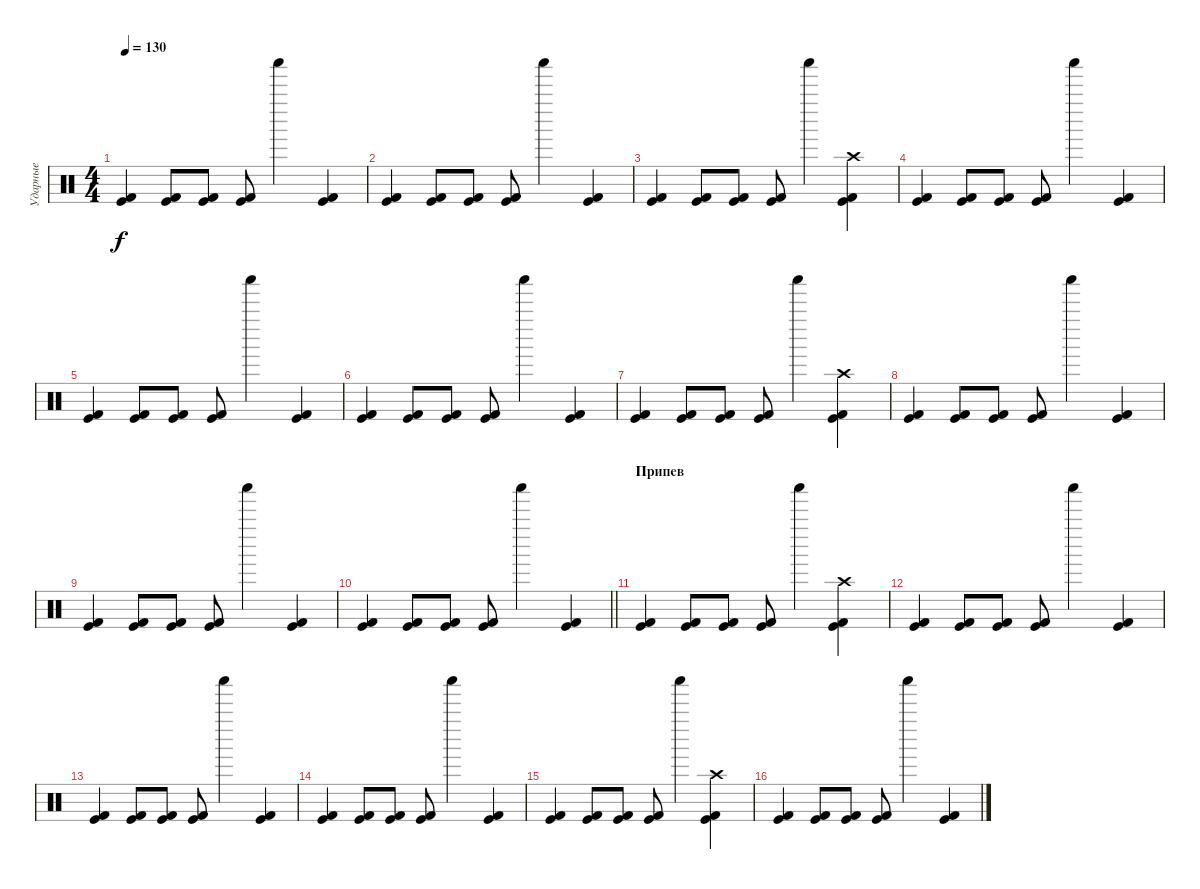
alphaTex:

\track ("Ударные" "Ударные") {instrument percussion}
\staff {score}
\articulation defaults
\ts (4 4)
\tempo 130
\clef neutral
\ks c
("Kick (hit)" "Kick (hit) 2").4{dy f} ("Kick (hit)" "Kick (hit) 2").8 ("Kick (hit)" "Kick (hit) 2").8 ("Kick (hit)" "Kick (hit) 2").8 "Shaker (hit)".4 ("Kick (hit)" "Kick (hit) 2").4 |
("Kick (hit)" "Kick (hit) 2").4 ("Kick (hit)" "Kick (hit) 2").8 ("Kick (hit)" "Kick (hit) 2").8 ("Kick (hit)" "Kick (hit) 2").8 "Shaker (hit)".4 ("Kick (hit)" "Kick (hit) 2").4 |
("Kick (hit)" "Kick (hit) 2").4 ("Kick (hit)" "Kick (hit) 2").8 ("Kick (hit)" "Kick (hit) 2").8 ("Kick (hit)" "Kick (hit) 2").8 "Shaker (hit)".4 ("Kick (hit)" "Kick (hit) 2" "Crash high (hit)").4 |
("Kick (hit)" "Kick (hit) 2").4 ("Kick (hit)" "Kick (hit) 2").8 ("Kick (hit)" "Kick (hit) 2").8 ("Kick (hit)" "Kick (hit) 2").8 "Shaker (hit)".4 ("Kick (hit)" "Kick (hit) 2").4 |
("Kick (hit)" "Kick (hit) 2").4 ("Kick (hit)" "Kick (hit) 2").8 ("Kick (hit)" "Kick (hit) 2").8 ("Kick (hit)" "Kick (hit) 2").8 "Shaker (hit)".4 ("Kick (hit)" "Kick (hit) 2").4 |
("Kick (hit)" "Kick (hit) 2").4 ("Kick (hit)" "Kick (hit) 2").8 ("Kick (hit)" "Kick (hit) 2").8 ("Kick (hit)" "Kick (hit) 2").8 "Shaker (hit)".4 ("Kick (hit)" "Kick (hit) 2").4 |
("Kick (hit)" "Kick (hit) 2").4 ("Kick (hit)" "Kick (hit) 2").8 ("Kick (hit)" "Kick (hit) 2").8 ("Kick (hit)" "Kick (hit) 2").8 "Shaker (hit)".4 ("Kick (hit)" "Kick (hit) 2" "Crash high (hit)").4 |
("Kick (hit)" "Kick (hit) 2").4 ("Kick (hit)" "Kick (hit) 2").8 ("Kick (hit)" "Kick (hit) 2").8 ("Kick (hit)" "Kick (hit) 2").8 "Shaker (hit)".4 ("Kick (hit)" "Kick (hit) 2").4 |
("Kick (hit)" "Kick (hit) 2").4 ("Kick (hit)" "Kick (hit) 2").8 ("Kick (hit)" "Kick (hit) 2").8 ("Kick (hit)" "Kick (hit) 2").8 "Shaker (hit)".4 ("Kick (hit)" "Kick (hit) 2").4 |
\barLineRight lightlight
("Kick (hit)" "Kick (hit) 2").4 ("Kick (hit)" "Kick (hit) 2").8 ("Kick (hit)" "Kick (hit) 2").8 ("Kick (hit)" "Kick (hit) 2").8 "Shaker (hit)".4 ("Kick (hit)" "Kick (hit) 2").4 |
\section ("" "Припев")
("Kick (hit)" "Kick (hit) 2").4 ("Kick (hit)" "Kick (hit) 2").8 ("Kick (hit)" "Kick (hit) 2").8 ("Kick (hit)" "Kick (hit) 2").8 "Shaker (hit)".4 ("Kick (hit)" "Kick (hit) 2" "Crash high (hit)").4 |
("Kick (hit)" "Kick (hit) 2").4 ("Kick (hit)" "Kick (hit) 2").8 ("Kick (hit)" "Kick (hit) 2").8 ("Kick (hit)" "Kick (hit) 2").8 "Shaker (hit)".4 ("Kick (hit)" "Kick (hit) 2").4 |
("Kick (hit)" "Kick (hit) 2").4 ("Kick (hit)" "Kick (hit) 2").8 ("Kick (hit)" "Kick (hit) 2").8 ("Kick (hit)" "Kick (hit) 2").8 "Shaker (hit)".4 ("Kick (hit)" "Kick (hit) 2").4 |
("Kick (hit)" "Kick (hit) 2").4 ("Kick (hit)" "Kick (hit) 2").8 ("Kick (hit)" "Kick (hit) 2").8 ("Kick (hit)" "Kick (hit) 2").8 "Shaker (hit)".4 ("Kick (hit)" "Kick (hit) 2").4 |
("Kick (hit)" "Kick (hit) 2").4 ("Kick (hit)" "Kick (hit) 2").8 ("Kick (hit)" "Kick (hit) 2").8 ("Kick (hit)" "Kick (hit) 2").8 "Shaker (hit)".4 ("Kick (hit)" "Kick (hit) 2" "Crash high (hit)").4 |
("Kick (hit)" "Kick (hit) 2").4 ("Kick (hit)" "Kick (hit) 2").8 ("Kick (hit)" "Kick (hit) 2").8 ("Kick (hit)" "Kick (hit) 2").8 "Shaker (hit)".4 ("Kick (hit)" "Kick (hit) 2").4
